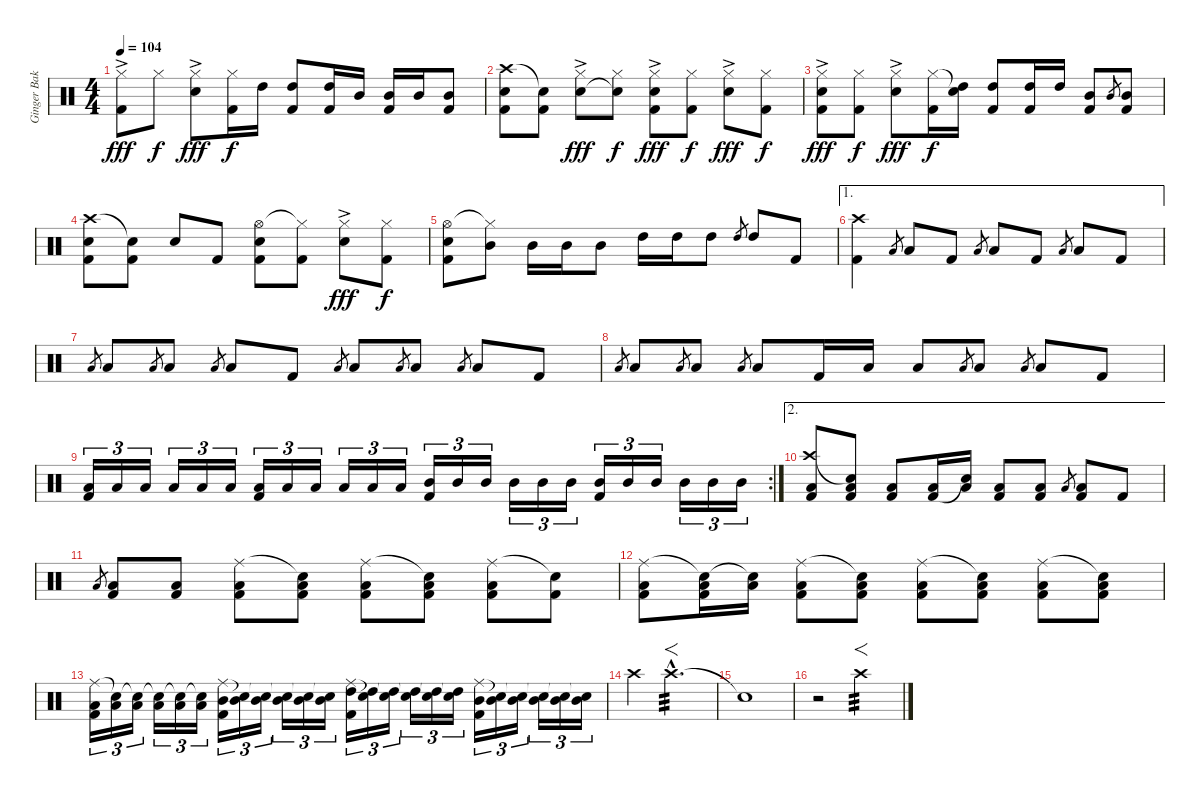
\track ("Ginger Baker" "Ginger Bak") {instrument percussion}
\staff {score}
\articulation defaults
\ts (4 4)
\tempo 104
\clef neutral
\ks c
("Hi-Hat (closed)"{ac} "Kick (hit) 2").8{dy fff} "Hi-Hat (closed)".8{dy f} ("Hi-Hat (closed)"{ac} "Electric Snare (hit)").8{dy fff} ("Hi-Hat (closed)" "Kick (hit) 2").16{dy f} "High Tom (hit)".16 ("High Tom (hit)" "Kick (hit) 2").8 ("High Tom (hit)" "Kick (hit) 2").16 "Mid Tom (hit)".16 ("Mid Tom (hit)" "Kick (hit) 2").16 "Mid Tom (hit)".16 ("Mid Tom (hit)" "Kick (hit) 2").8 |
("Crash high (hit)" "Electric Snare (hit)" "Kick (hit) 2").8 ("Snare (hit)"{t} "Kick (hit) 2").8 ("Hi-Hat (closed)"{ac} "Electric Snare (hit)").8{dy fff} ("Hi-Hat (closed)" "Snare (hit)"{t}).8{dy f} ("Hi-Hat (closed)"{ac} "Electric Snare (hit)" "Kick (hit) 2").8{dy fff} ("Hi-Hat (closed)" "Kick (hit) 2").8{dy f} ("Hi-Hat (closed)"{ac} "Electric Snare (hit)").8{dy fff} ("Hi-Hat (closed)" "Kick (hit) 2").8{dy f} |
("Hi-Hat (closed)"{ac} "Electric Snare (hit)" "Kick (hit) 2").8{dy fff} ("Hi-Hat (closed)" "Kick (hit) 2").8{dy f} ("Hi-Hat (closed)"{ac} "Electric Snare (hit)").8{dy fff} ("Hi-Hat (closed)" "Kick (hit) 2").16{dy f} ("Snare (hit)"{t} "High Tom (hit)").16 ("High Tom (hit)" "Kick (hit) 2").8 ("High Tom (hit)" "Kick (hit) 2").16 "High Tom (hit)".16 ("Mid Tom (hit)" "Kick (hit) 2").8 "Mid Tom (hit)".8{gr} ("Mid Tom (hit)" "Kick (hit) 2").8 |
("Crash high (hit)" "Electric Snare (hit)" "Kick (hit) 2").8 ("Snare (hit)"{t} "Kick (hit) 2").8 "Electric Snare (hit)".8 "Kick (hit) 2".8 ("Hi-Hat (open)" "Electric Snare (hit)" "Kick (hit) 2").8 ("Hi-Hat (closed)"{t} "Kick (hit) 2").8 ("Hi-Hat (closed)"{ac} "Electric Snare (hit)").8{dy fff} ("Hi-Hat (closed)" "Kick (hit) 2").8{dy f} |
("Hi-Hat (open)" "Electric Snare (hit)" "Kick (hit) 2").8 ("Hi-Hat (closed)"{t} "Mid Tom (hit)").8 "Mid Tom (hit)".16 "Mid Tom (hit)".16 "Mid Tom (hit)".8 "High Tom (hit)".16 "High Tom (hit)".16 "High Tom (hit)".8 "High Tom (hit)".8{gr} "High Tom (hit)".8 "Kick (hit) 2".8 |
\ae 1
("Crash high (hit)" "Kick (hit) 2").4 "Low Tom (hit)".8{gr} "Low Tom (hit)".8 "Kick (hit) 2".8 "Low Tom (hit)".8{gr} "Low Tom (hit)".8 "Kick (hit) 2".8 "Low Tom (hit)".8{gr} "Low Tom (hit)".8 "Kick (hit) 2".8 |
"Low Tom (hit)".8{gr} "Low Tom (hit)".8 "Low Tom (hit)".8{gr} "Low Tom (hit)".8 "Low Tom (hit)".8{gr} "Low Tom (hit)".8 "Kick (hit) 2".8 "Low Tom (hit)".8{gr} "Low Tom (hit)".8 "Low Tom (hit)".8{gr} "Low Tom (hit)".8 "Low Tom (hit)".8{gr} "Low Tom (hit)".8 "Kick (hit) 2".8 |
"Low Tom (hit)".8{gr} "Low Tom (hit)".8 "Low Tom (hit)".8{gr} "Low Tom (hit)".8 "Low Tom (hit)".8{gr} "Low Tom (hit)".8 "Kick (hit) 2".16 "Low Tom (hit)".16 "Low Tom (hit)".8 "Low Tom (hit)".8{gr} "Low Tom (hit)".8 "Low Tom (hit)".8{gr} "Low Tom (hit)".8 "Kick (hit) 2".8 |
\rc 2
("Low Tom (hit)" "Kick (hit) 2").16{tu (3 2)} "Low Tom (hit)".16{tu (3 2)} "Low Tom (hit)".16{tu (3 2)} "Low Tom (hit)".16{tu (3 2)} "Low Tom (hit)".16{tu (3 2)} "Low Tom (hit)".16{tu (3 2)} ("Low Tom (hit)" "Kick (hit) 2").16{tu (3 2)} "Low Tom (hit)".16{tu (3 2)} "Low Tom (hit)".16{tu (3 2)} "Low Tom (hit)".16{tu (3 2)} "Low Tom (hit)".16{tu (3 2)} "Low Tom (hit)".16{tu (3 2)} ("Mid Tom (hit)" "Kick (hit) 2").16{tu (3 2)} "Mid Tom (hit)".16{tu (3 2)} "Mid Tom (hit)".16{tu (3 2)} "Mid Tom (hit)".16{tu (3 2)} "Mid Tom (hit)".16{tu (3 2)} "Mid Tom (hit)".16{tu (3 2)} ("Mid Tom (hit)" "Kick (hit) 2").16{tu (3 2)} "Mid Tom (hit)".16{tu (3 2)} "Mid Tom (hit)".16{tu (3 2)} "Mid Tom (hit)".16{tu (3 2)} "Mid Tom (hit)".16{tu (3 2)} "Mid Tom (hit)".16{tu (3 2)} |
\ae 2
("Crash high (hit)" "Low Tom (hit)" "Kick (hit) 2").8 ("Snare (hit)"{t} "Low Tom (hit)" "Kick (hit) 2").8 ("Low Tom (hit)" "Kick (hit) 2").8 ("Low Tom (hit)" "Kick (hit) 2").16 ("Low Tom (hit)" "Snare (hit)"{t}).16 ("Low Tom (hit)" "Kick (hit) 2").8 ("Low Tom (hit)" "Kick (hit) 2").8 "Low Tom (hit)".8{gr} ("Low Tom (hit)" "Kick (hit) 2").8 "Kick (hit) 2".8 |
"Low Tom (hit)".8{gr} ("Low Tom (hit)" "Kick (hit) 2").8 ("Low Tom (hit)" "Kick (hit) 2").8 ("Ride (middle)" "Low Tom (hit)" "Kick (hit) 2").8 ("Snare (hit)"{t} "Low Tom (hit)" "Kick (hit) 2").8 ("Ride (middle)" "Low Tom (hit)" "Kick (hit) 2").8 ("Snare (hit)"{t} "Low Tom (hit)" "Kick (hit) 2").8 ("Ride (middle)" "Low Tom (hit)" "Kick (hit) 2").8 ("Snare (hit)"{t} "Kick (hit) 2").8 |
("Ride (middle)" "Low Tom (hit)" "Kick (hit) 2").8 ("Snare (hit)"{t} "Low Tom (hit)" "Kick (hit) 2").16 ("Snare (hit)"{t} "Low Tom (hit)").16 ("Ride (middle)" "Low Tom (hit)" "Kick (hit) 2").8 ("Snare (hit)"{t} "Low Tom (hit)" "Kick (hit) 2").8 ("Ride (middle)" "Low Tom (hit)" "Kick (hit) 2").8 ("Snare (hit)"{t} "Low Tom (hit)" "Kick (hit) 2").8 ("Ride (middle)" "Low Tom (hit)" "Kick (hit) 2").8 ("Snare (hit)"{t} "Low Tom (hit)" "Kick (hit) 2").8 |
("Ride (middle)" "Low Tom (hit)" "Kick (hit) 2").16{tu (3 2)} ("Snare (hit)"{t} "Low Tom (hit)").16{tu (3 2)} ("Snare (hit)"{t} "Low Tom (hit)").16{tu (3 2)} ("Snare (hit)"{t} "Low Tom (hit)").16{tu (3 2)} ("Snare (hit)"{t} "Low Tom (hit)").16{tu (3 2)} ("Snare (hit)"{t} "Low Tom (hit)").16{tu (3 2)} ("Ride (middle)" "Mid Tom (hit)" "Kick (hit) 2").16{tu (3 2)} ("Snare (hit)"{t} "Mid Tom (hit)").16{tu (3 2)} ("Snare (hit)"{t} "Mid Tom (hit)").16{tu (3 2)} ("Snare (hit)"{t} "Mid Tom (hit)").16{tu (3 2)} ("Snare (hit)"{t} "Mid Tom (hit)").16{tu (3 2)} ("Snare (hit)"{t} "Mid Tom (hit)").16{tu (3 2)} ("Ride (middle)" "High Tom (hit)" "Kick (hit) 2").16{tu (3 2)} ("Snare (hit)"{t} "High Tom (hit)").16{tu (3 2)} ("Snare (hit)"{t} "High Tom (hit)").16{tu (3 2)} ("Snare (hit)"{t} "High Tom (hit)").16{tu (3 2)} ("Snare (hit)"{t} "High Tom (hit)").16{tu (3 2)} ("Snare (hit)"{t} "High Tom (hit)").16{tu (3 2)} ("Ride (middle)" "Mid Tom (hit)" "Kick (hit) 2").16{tu (3 2)} ("Snare (hit)"{t} "Mid Tom (hit)").16{tu (3 2)} ("Snare (hit)"{t} "Mid Tom (hit)").16{tu (3 2)} ("Snare (hit)"{t} "Mid Tom (hit)").16{tu (3 2)} ("Snare (hit)"{t} "Mid Tom (hit)").16{tu (3 2)} ("Snare (hit)"{t} "Mid Tom (hit)").16{tu (3 2)} |
"Crash high (hit)".4 "Crash high (hit)"{hac}.2{f d tp 3} |
"Snare (hit)"{t}.1 |
r.2 "Crash high (hit)".2{f tp 3}
